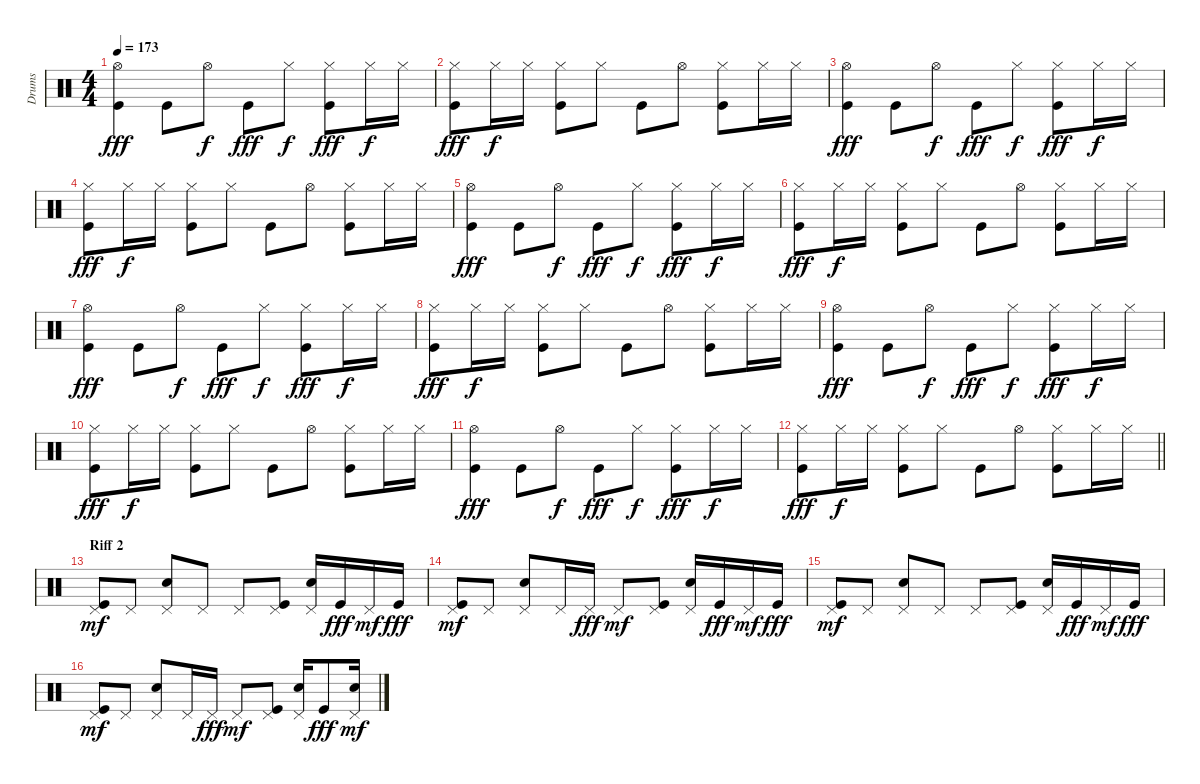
\track ("Drums" "Drums") {instrument percussion}
\staff {score}
\articulation defaults
\ts (4 4)
\tempo 173
\clef neutral
\ks c
("Kick (hit)" "Hi-Hat (open)").4{dy fff} "Kick (hit)".8 "Hi-Hat (open)".8{dy f} "Kick (hit)".8{dy fff} "Hi-Hat (closed)".8{dy f} ("Kick (hit)" "Hi-Hat (closed)").8{dy fff} "Hi-Hat (closed)".16{dy f} "Hi-Hat (closed)".16 |
("Kick (hit)" "Hi-Hat (closed)").8{dy fff} "Hi-Hat (closed)".16{dy f} "Hi-Hat (closed)".16 ("Kick (hit)" "Hi-Hat (closed)").8 "Hi-Hat (closed)".8 "Kick (hit)".8 "Hi-Hat (open)".8 ("Kick (hit)" "Hi-Hat (closed)").8 "Hi-Hat (closed)".16 "Hi-Hat (closed)".16 |
("Kick (hit)" "Hi-Hat (open)").4{dy fff} "Kick (hit)".8 "Hi-Hat (open)".8{dy f} "Kick (hit)".8{dy fff} "Hi-Hat (closed)".8{dy f} ("Kick (hit)" "Hi-Hat (closed)").8{dy fff} "Hi-Hat (closed)".16{dy f} "Hi-Hat (closed)".16 |
("Kick (hit)" "Hi-Hat (closed)").8{dy fff} "Hi-Hat (closed)".16{dy f} "Hi-Hat (closed)".16 ("Kick (hit)" "Hi-Hat (closed)").8 "Hi-Hat (closed)".8 "Kick (hit)".8 "Hi-Hat (open)".8 ("Kick (hit)" "Hi-Hat (closed)").8 "Hi-Hat (closed)".16 "Hi-Hat (closed)".16 |
("Kick (hit)" "Hi-Hat (open)").4{dy fff} "Kick (hit)".8 "Hi-Hat (open)".8{dy f} "Kick (hit)".8{dy fff} "Hi-Hat (closed)".8{dy f} ("Kick (hit)" "Hi-Hat (closed)").8{dy fff} "Hi-Hat (closed)".16{dy f} "Hi-Hat (closed)".16 |
("Kick (hit)" "Hi-Hat (closed)").8{dy fff} "Hi-Hat (closed)".16{dy f} "Hi-Hat (closed)".16 ("Kick (hit)" "Hi-Hat (closed)").8 "Hi-Hat (closed)".8 "Kick (hit)".8 "Hi-Hat (open)".8 ("Kick (hit)" "Hi-Hat (closed)").8 "Hi-Hat (closed)".16 "Hi-Hat (closed)".16 |
("Kick (hit)" "Hi-Hat (open)").4{dy fff} "Kick (hit)".8 "Hi-Hat (open)".8{dy f} "Kick (hit)".8{dy fff} "Hi-Hat (closed)".8{dy f} ("Kick (hit)" "Hi-Hat (closed)").8{dy fff} "Hi-Hat (closed)".16{dy f} "Hi-Hat (closed)".16 |
("Kick (hit)" "Hi-Hat (closed)").8{dy fff} "Hi-Hat (closed)".16{dy f} "Hi-Hat (closed)".16 ("Kick (hit)" "Hi-Hat (closed)").8 "Hi-Hat (closed)".8 "Kick (hit)".8 "Hi-Hat (open)".8 ("Kick (hit)" "Hi-Hat (closed)").8 "Hi-Hat (closed)".16 "Hi-Hat (closed)".16 |
("Kick (hit)" "Hi-Hat (open)").4{dy fff} "Kick (hit)".8 "Hi-Hat (open)".8{dy f} "Kick (hit)".8{dy fff} "Hi-Hat (closed)".8{dy f} ("Kick (hit)" "Hi-Hat (closed)").8{dy fff} "Hi-Hat (closed)".16{dy f} "Hi-Hat (closed)".16 |
("Kick (hit)" "Hi-Hat (closed)").8{dy fff} "Hi-Hat (closed)".16{dy f} "Hi-Hat (closed)".16 ("Kick (hit)" "Hi-Hat (closed)").8 "Hi-Hat (closed)".8 "Kick (hit)".8 "Hi-Hat (open)".8 ("Kick (hit)" "Hi-Hat (closed)").8 "Hi-Hat (closed)".16 "Hi-Hat (closed)".16 |
("Kick (hit)" "Hi-Hat (open)").4{dy fff} "Kick (hit)".8 "Hi-Hat (open)".8{dy f} "Kick (hit)".8{dy fff} "Hi-Hat (closed)".8{dy f} ("Kick (hit)" "Hi-Hat (closed)").8{dy fff} "Hi-Hat (closed)".16{dy f} "Hi-Hat (closed)".16 |
\barLineRight lightlight
("Kick (hit)" "Hi-Hat (closed)").8{dy fff} "Hi-Hat (closed)".16{dy f} "Hi-Hat (closed)".16 ("Kick (hit)" "Hi-Hat (closed)").8 "Hi-Hat (closed)".8 "Kick (hit)".8 "Hi-Hat (open)".8 ("Kick (hit)" "Hi-Hat (closed)").8 "Hi-Hat (closed)".16 "Hi-Hat (closed)".16 |
\section ("" "Riff 2")
("Kick (hit)" "Pedal Hi-Hat (hit)").8{dy mf} "Pedal Hi-Hat (hit)".8 ("Snare (hit) 2" "Pedal Hi-Hat (hit)").8 "Pedal Hi-Hat (hit)".8 "Pedal Hi-Hat (hit)".8 ("Kick (hit)" "Pedal Hi-Hat (hit)").8 ("Snare (hit) 2" "Pedal Hi-Hat (hit)").16 "Kick (hit)".16{dy fff} "Pedal Hi-Hat (hit)".16{dy mf} "Kick (hit)".16{dy fff} |
("Kick (hit)" "Pedal Hi-Hat (hit)").8{dy mf} "Pedal Hi-Hat (hit)".8 ("Snare (hit) 2" "Pedal Hi-Hat (hit)").8 "Pedal Hi-Hat (hit)".16 "Pedal Hi-Hat (hit)".16{dy fff} "Pedal Hi-Hat (hit)".8{dy mf} ("Kick (hit)" "Pedal Hi-Hat (hit)").8 ("Snare (hit) 2" "Pedal Hi-Hat (hit)").16 "Kick (hit)".16{dy fff} "Pedal Hi-Hat (hit)".16{dy mf} "Kick (hit)".16{dy fff} |
("Kick (hit)" "Pedal Hi-Hat (hit)").8{dy mf} "Pedal Hi-Hat (hit)".8 ("Snare (hit) 2" "Pedal Hi-Hat (hit)").8 "Pedal Hi-Hat (hit)".8 "Pedal Hi-Hat (hit)".8 ("Kick (hit)" "Pedal Hi-Hat (hit)").8 ("Snare (hit) 2" "Pedal Hi-Hat (hit)").16 "Kick (hit)".16{dy fff} "Pedal Hi-Hat (hit)".16{dy mf} "Kick (hit)".16{dy fff} |
("Kick (hit)" "Pedal Hi-Hat (hit)").8{dy mf} "Pedal Hi-Hat (hit)".8 ("Snare (hit) 2" "Pedal Hi-Hat (hit)").8 "Pedal Hi-Hat (hit)".16 "Pedal Hi-Hat (hit)".16{dy fff} "Pedal Hi-Hat (hit)".8{dy mf} ("Kick (hit)" "Pedal Hi-Hat (hit)").8 ("Snare (hit) 2" "Pedal Hi-Hat (hit)").16 "Kick (hit)".8{dy fff} ("Snare (hit) 2" "Pedal Hi-Hat (hit)").16{dy mf}
